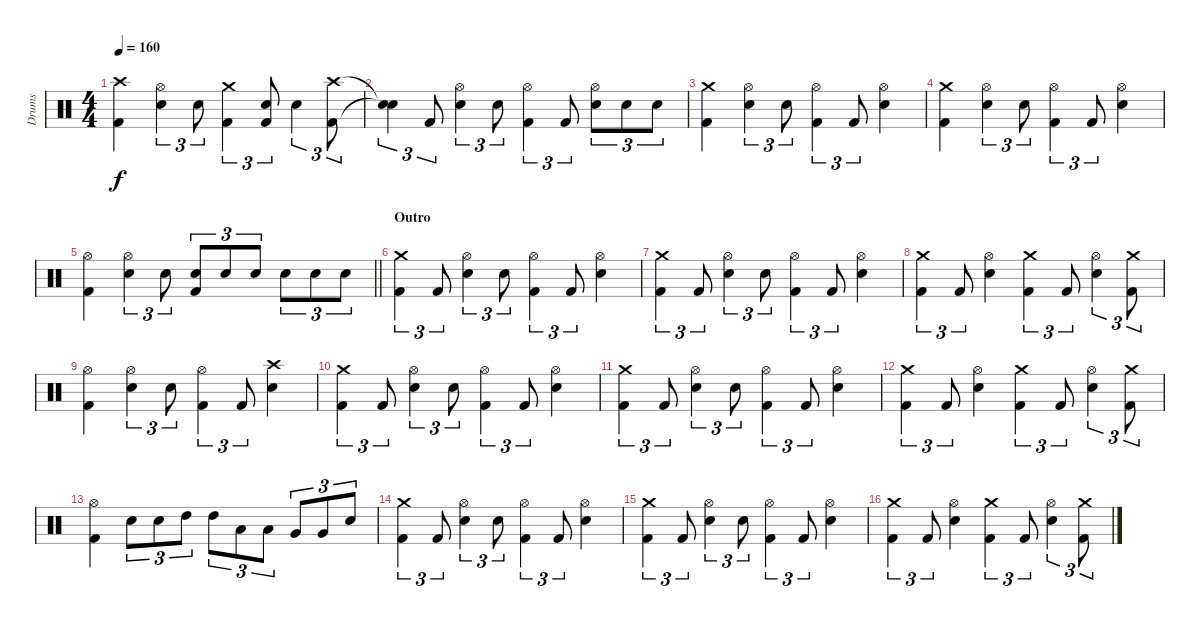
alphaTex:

\track ("Drums" "Drums") {instrument percussion}
\staff {score}
\articulation defaults
\ts (4 4)
\tempo 160
\clef neutral
\ks c
("Crash high (hit)" "Kick (hit) 2").4{dy f} ("Hi-Hat (open)" "Snare (hit) 2").4{tu (3 2)} "Snare (hit) 2".8{tu (3 2)} ("Crash medium (hit)" "Kick (hit) 2").4{tu (3 2)} ("Snare (hit) 2" "Kick (hit) 2").8{tu (3 2)} "Snare (hit) 2".4{tu (3 2)} ("Crash high (hit)" "Kick (hit) 2").8{tu (3 2)} |
("Snare (hit)"{t} "Snare (hit)"{t}).4{tu (3 2)} "Kick (hit) 2".8{tu (3 2)} ("Hi-Hat (open)" "Snare (hit) 2").4{tu (3 2)} "Snare (hit) 2".8{tu (3 2)} ("Hi-Hat (open)" "Kick (hit) 2").4{tu (3 2)} "Kick (hit) 2".8{tu (3 2)} ("Hi-Hat (open)" "Snare (hit) 2").8{tu (3 2)} "Snare (hit) 2".8{tu (3 2)} "Snare (hit) 2".8{tu (3 2)} |
("Crash medium (hit)" "Kick (hit) 2").4 ("Hi-Hat (open)" "Snare (hit) 2").4{tu (3 2)} "Snare (hit) 2".8{tu (3 2)} ("Hi-Hat (open)" "Kick (hit) 2").4{tu (3 2)} "Kick (hit) 2".8{tu (3 2)} ("Hi-Hat (open)" "Snare (hit) 2").4 |
("Crash medium (hit)" "Kick (hit) 2").4 ("Hi-Hat (open)" "Snare (hit) 2").4{tu (3 2)} "Snare (hit) 2".8{tu (3 2)} ("Hi-Hat (open)" "Kick (hit) 2").4{tu (3 2)} "Kick (hit) 2".8{tu (3 2)} ("Hi-Hat (open)" "Snare (hit) 2").4 |
\barLineRight lightlight
("Hi-Hat (open)" "Kick (hit) 2").4 ("Hi-Hat (open)" "Snare (hit) 2").4{tu (3 2)} "Snare (hit) 2".8{tu (3 2)} ("Snare (hit) 2" "Kick (hit) 2").8{tu (3 2)} "Snare (hit) 2".8{tu (3 2)} "Snare (hit) 2".8{tu (3 2)} "Snare (hit) 2".8{tu (3 2)} "Snare (hit) 2".8{tu (3 2)} "Snare (hit) 2".8{tu (3 2)} |
\section ("" "Outro")
("Crash medium (hit)" "Kick (hit) 2").4{tu (3 2)} "Kick (hit) 2".8{tu (3 2)} ("Hi-Hat (open)" "Snare (hit) 2").4{tu (3 2)} "Snare (hit) 2".8{tu (3 2)} ("Hi-Hat (open)" "Kick (hit) 2").4{tu (3 2)} "Kick (hit) 2".8{tu (3 2)} ("Hi-Hat (open)" "Snare (hit) 2").4 |
("Crash medium (hit)" "Kick (hit) 2").4{tu (3 2)} "Kick (hit) 2".8{tu (3 2)} ("Hi-Hat (open)" "Snare (hit) 2").4{tu (3 2)} "Snare (hit) 2".8{tu (3 2)} ("Hi-Hat (open)" "Kick (hit) 2").4{tu (3 2)} "Kick (hit) 2".8{tu (3 2)} ("Hi-Hat (open)" "Snare (hit) 2").4 |
("Crash medium (hit)" "Kick (hit) 2").4{tu (3 2)} "Kick (hit) 2".8{tu (3 2)} ("Hi-Hat (open)" "Snare (hit) 2").4 ("Crash medium (hit)" "Kick (hit) 2").4{tu (3 2)} "Kick (hit) 2".8{tu (3 2)} ("Hi-Hat (open)" "Snare (hit) 2").4{tu (3 2)} ("Crash medium (hit)" "Kick (hit) 2").8{tu (3 2)} |
("Hi-Hat (open)" "Kick (hit) 2").4 ("Hi-Hat (open)" "Snare (hit) 2").4{tu (3 2)} "Snare (hit) 2".8{tu (3 2)} ("Hi-Hat (open)" "Kick (hit) 2").4{tu (3 2)} "Kick (hit) 2".8{tu (3 2)} ("Crash high (hit)" "Snare (hit) 2").4 |
("Crash medium (hit)" "Kick (hit) 2").4{tu (3 2)} "Kick (hit) 2".8{tu (3 2)} ("Hi-Hat (open)" "Snare (hit) 2").4{tu (3 2)} "Snare (hit) 2".8{tu (3 2)} ("Hi-Hat (open)" "Kick (hit) 2").4{tu (3 2)} "Kick (hit) 2".8{tu (3 2)} ("Hi-Hat (open)" "Snare (hit) 2").4 |
("Crash medium (hit)" "Kick (hit) 2").4{tu (3 2)} "Kick (hit) 2".8{tu (3 2)} ("Hi-Hat (open)" "Snare (hit) 2").4{tu (3 2)} "Snare (hit) 2".8{tu (3 2)} ("Hi-Hat (open)" "Kick (hit) 2").4{tu (3 2)} "Kick (hit) 2".8{tu (3 2)} ("Hi-Hat (open)" "Snare (hit) 2").4 |
("Crash medium (hit)" "Kick (hit) 2").4{tu (3 2)} "Kick (hit) 2".8{tu (3 2)} ("Hi-Hat (open)" "Snare (hit) 2").4 ("Crash medium (hit)" "Kick (hit) 2").4{tu (3 2)} "Kick (hit) 2".8{tu (3 2)} ("Hi-Hat (open)" "Snare (hit) 2").4{tu (3 2)} ("Crash medium (hit)" "Kick (hit) 2").8{tu (3 2)} |
("Hi-Hat (open)" "Kick (hit) 2").4 "Snare (hit) 2".8{tu (3 2)} "Snare (hit) 2".8{tu (3 2)} "High Tom (hit)".8{tu (3 2)} "High Tom (hit)".8{tu (3 2)} "Low Tom (hit)".8{tu (3 2)} "Low Tom (hit)".8{tu (3 2)} "Very Low Tom (hit)".8{tu (3 2)} "Very Low Tom (hit)".8{tu (3 2)} "Snare (hit) 2".8{tu (3 2)} |
("Crash medium (hit)" "Kick (hit) 2").4{tu (3 2)} "Kick (hit) 2".8{tu (3 2)} ("Hi-Hat (open)" "Snare (hit) 2").4{tu (3 2)} "Snare (hit) 2".8{tu (3 2)} ("Hi-Hat (open)" "Kick (hit) 2").4{tu (3 2)} "Kick (hit) 2".8{tu (3 2)} ("Hi-Hat (open)" "Snare (hit) 2").4 |
("Crash medium (hit)" "Kick (hit) 2").4{tu (3 2)} "Kick (hit) 2".8{tu (3 2)} ("Hi-Hat (open)" "Snare (hit) 2").4{tu (3 2)} "Snare (hit) 2".8{tu (3 2)} ("Hi-Hat (open)" "Kick (hit) 2").4{tu (3 2)} "Kick (hit) 2".8{tu (3 2)} ("Hi-Hat (open)" "Snare (hit) 2").4 |
("Crash medium (hit)" "Kick (hit) 2").4{tu (3 2)} "Kick (hit) 2".8{tu (3 2)} ("Hi-Hat (open)" "Snare (hit) 2").4 ("Crash medium (hit)" "Kick (hit) 2").4{tu (3 2)} "Kick (hit) 2".8{tu (3 2)} ("Hi-Hat (open)" "Snare (hit) 2").4{tu (3 2)} ("Crash medium (hit)" "Kick (hit) 2").8{tu (3 2)}
